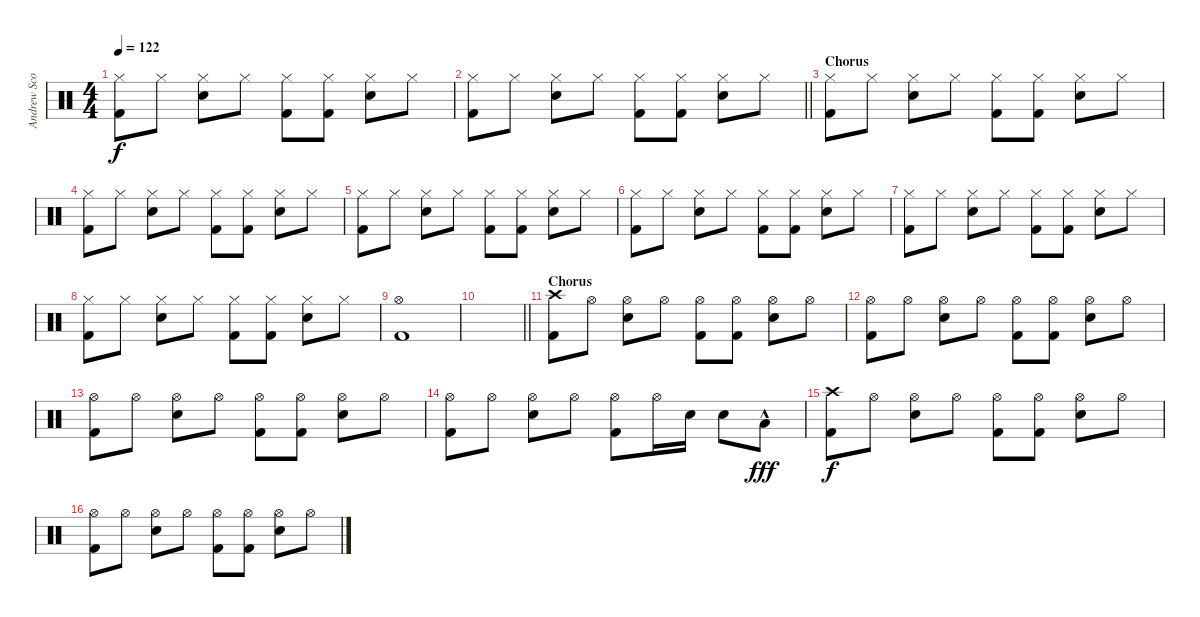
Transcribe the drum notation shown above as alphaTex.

\track ("Andrew Scott" "Andrew Sco") {instrument percussion}
\staff {score}
\articulation defaults
\ts (4 4)
\tempo 122
\clef neutral
\ks c
("Hi-Hat (closed)" "Kick (hit) 2").8{dy f} "Hi-Hat (closed)".8 ("Hi-Hat (closed)" "Snare (hit) 2").8 "Hi-Hat (closed)".8 ("Hi-Hat (closed)" "Kick (hit) 2").8 ("Hi-Hat (closed)" "Kick (hit) 2").8 ("Hi-Hat (closed)" "Snare (hit) 2").8 "Hi-Hat (closed)".8 |
\barLineRight lightlight
("Hi-Hat (closed)" "Kick (hit) 2").8 "Hi-Hat (closed)".8 ("Hi-Hat (closed)" "Snare (hit) 2").8 "Hi-Hat (closed)".8 ("Hi-Hat (closed)" "Kick (hit) 2").8 ("Hi-Hat (closed)" "Kick (hit) 2").8 ("Hi-Hat (closed)" "Snare (hit) 2").8 "Hi-Hat (closed)".8 |
\section ("" "Chorus")
("Hi-Hat (closed)" "Kick (hit) 2").8 "Hi-Hat (closed)".8 ("Hi-Hat (closed)" "Snare (hit) 2").8 "Hi-Hat (closed)".8 ("Hi-Hat (closed)" "Kick (hit) 2").8 ("Hi-Hat (closed)" "Kick (hit) 2").8 ("Hi-Hat (closed)" "Snare (hit) 2").8 "Hi-Hat (closed)".8 |
("Hi-Hat (closed)" "Kick (hit) 2").8 "Hi-Hat (closed)".8 ("Hi-Hat (closed)" "Snare (hit) 2").8 "Hi-Hat (closed)".8 ("Hi-Hat (closed)" "Kick (hit) 2").8 ("Hi-Hat (closed)" "Kick (hit) 2").8 ("Hi-Hat (closed)" "Snare (hit) 2").8 "Hi-Hat (closed)".8 |
("Hi-Hat (closed)" "Kick (hit) 2").8 "Hi-Hat (closed)".8 ("Hi-Hat (closed)" "Snare (hit) 2").8 "Hi-Hat (closed)".8 ("Hi-Hat (closed)" "Kick (hit) 2").8 ("Hi-Hat (closed)" "Kick (hit) 2").8 ("Hi-Hat (closed)" "Snare (hit) 2").8 "Hi-Hat (closed)".8 |
("Hi-Hat (closed)" "Kick (hit) 2").8 "Hi-Hat (closed)".8 ("Hi-Hat (closed)" "Snare (hit) 2").8 "Hi-Hat (closed)".8 ("Hi-Hat (closed)" "Kick (hit) 2").8 ("Hi-Hat (closed)" "Kick (hit) 2").8 ("Hi-Hat (closed)" "Snare (hit) 2").8 "Hi-Hat (closed)".8 |
("Hi-Hat (closed)" "Kick (hit) 2").8 "Hi-Hat (closed)".8 ("Hi-Hat (closed)" "Snare (hit) 2").8 "Hi-Hat (closed)".8 ("Hi-Hat (closed)" "Kick (hit) 2").8 ("Hi-Hat (closed)" "Kick (hit) 2").8 ("Hi-Hat (closed)" "Snare (hit) 2").8 "Hi-Hat (closed)".8 |
("Hi-Hat (closed)" "Kick (hit) 2").8 "Hi-Hat (closed)".8 ("Hi-Hat (closed)" "Snare (hit) 2").8 "Hi-Hat (closed)".8 ("Hi-Hat (closed)" "Kick (hit) 2").8 ("Hi-Hat (closed)" "Kick (hit) 2").8 ("Hi-Hat (closed)" "Snare (hit) 2").8 "Hi-Hat (closed)".8 |
("Hi-Hat (open)" "Kick (hit) 2").1 |
\barLineRight lightlight
|
\section ("" "Chorus")
("Crash high (hit)" "Kick (hit) 2").8 "Hi-Hat (open)".8 ("Hi-Hat (open)" "Snare (hit) 2").8 "Hi-Hat (open)".8 ("Hi-Hat (open)" "Kick (hit) 2").8 ("Hi-Hat (open)" "Kick (hit) 2").8 ("Hi-Hat (open)" "Snare (hit) 2").8 "Hi-Hat (open)".8 |
("Hi-Hat (open)" "Kick (hit) 2").8 "Hi-Hat (open)".8 ("Hi-Hat (open)" "Snare (hit) 2").8 "Hi-Hat (open)".8 ("Hi-Hat (open)" "Kick (hit) 2").8 ("Hi-Hat (open)" "Kick (hit) 2").8 ("Hi-Hat (open)" "Snare (hit) 2").8 "Hi-Hat (open)".8 |
("Hi-Hat (open)" "Kick (hit) 2").8 "Hi-Hat (open)".8 ("Hi-Hat (open)" "Snare (hit) 2").8 "Hi-Hat (open)".8 ("Hi-Hat (open)" "Kick (hit) 2").8 ("Hi-Hat (open)" "Kick (hit) 2").8 ("Hi-Hat (open)" "Snare (hit) 2").8 "Hi-Hat (open)".8 |
("Hi-Hat (open)" "Kick (hit) 2").8 "Hi-Hat (open)".8 ("Hi-Hat (open)" "Snare (hit) 2").8 "Hi-Hat (open)".8 ("Hi-Hat (open)" "Kick (hit) 2").8 "Hi-Hat (open)".16 "Snare (hit) 2".16 "Snare (hit) 2".8 "Low Tom (hit)"{hac}.8{dy fff} |
("Crash high (hit)" "Kick (hit) 2").8{dy f} "Hi-Hat (open)".8 ("Hi-Hat (open)" "Snare (hit) 2").8 "Hi-Hat (open)".8 ("Hi-Hat (open)" "Kick (hit) 2").8 ("Hi-Hat (open)" "Kick (hit) 2").8 ("Hi-Hat (open)" "Snare (hit) 2").8 "Hi-Hat (open)".8 |
("Hi-Hat (open)" "Kick (hit) 2").8 "Hi-Hat (open)".8 ("Hi-Hat (open)" "Snare (hit) 2").8 "Hi-Hat (open)".8 ("Hi-Hat (open)" "Kick (hit) 2").8 ("Hi-Hat (open)" "Kick (hit) 2").8 ("Hi-Hat (open)" "Snare (hit) 2").8 "Hi-Hat (open)".8
